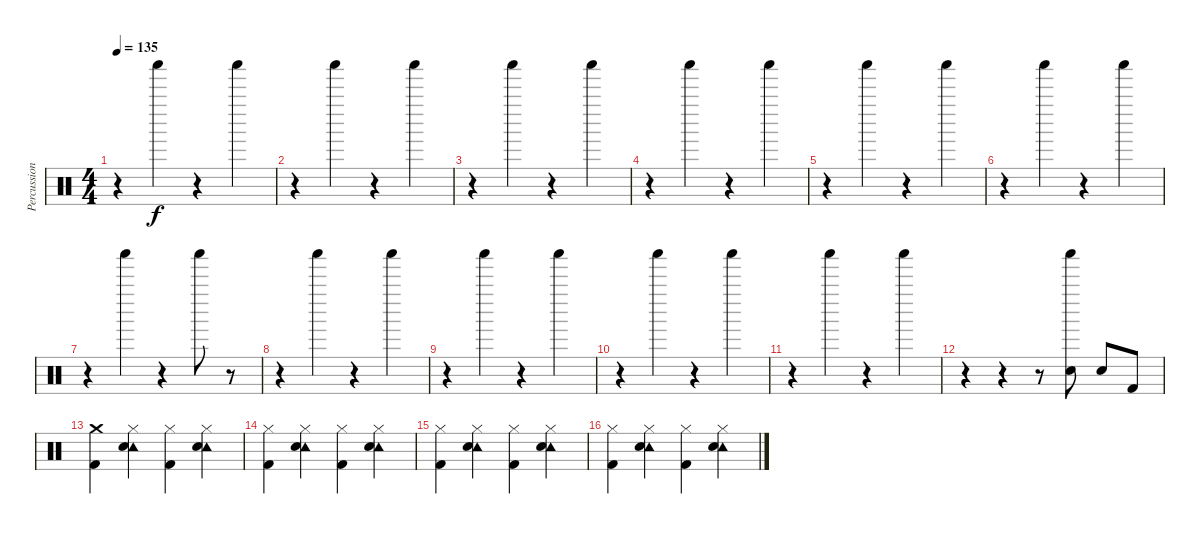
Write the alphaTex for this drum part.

\track ("Percussion" "Percussion") {instrument percussion}
\staff {score}
\articulation defaults
\ts (4 4)
\tempo 135
\clef neutral
\ks c
r.4{dy f} "Shaker (hit)".4 r.4 "Shaker (hit)".4 |
r.4 "Shaker (hit)".4 r.4 "Shaker (hit)".4 |
r.4 "Shaker (hit)".4 r.4 "Shaker (hit)".4 |
r.4 "Shaker (hit)".4 r.4 "Shaker (hit)".4 |
\section ("" "")
r.4 "Shaker (hit)".4 r.4 "Shaker (hit)".4 |
r.4 "Shaker (hit)".4 r.4 "Shaker (hit)".4 |
r.4 "Shaker (hit)".4 r.4 "Shaker (hit)".8 r.8 |
r.4 "Shaker (hit)".4 r.4 "Shaker (hit)".4 |
r.4 "Shaker (hit)".4 r.4 "Shaker (hit)".4 |
r.4 "Shaker (hit)".4 r.4 "Shaker (hit)".4 |
r.4 "Shaker (hit)".4 r.4 "Shaker (hit)".4 |
r.4 r.4 r.8 ("Shaker (hit)" "Electric Snare (hit)").8 "Electric Snare (hit)".8 "Kick (hit) 2".8 |
\section ("" "")
("Crash medium (hit)" "Kick (hit) 2").4 ("Hi-Hat (closed)" "Tambourine (hit)" "Electric Snare (hit)").4 ("Hi-Hat (closed)" "Kick (hit) 2").4 ("Hi-Hat (closed)" "Tambourine (hit)" "Electric Snare (hit)").4 |
("Hi-Hat (closed)" "Kick (hit) 2").4 ("Hi-Hat (closed)" "Tambourine (hit)" "Electric Snare (hit)").4 ("Hi-Hat (closed)" "Kick (hit) 2").4 ("Hi-Hat (closed)" "Tambourine (hit)" "Electric Snare (hit)").4 |
("Hi-Hat (closed)" "Kick (hit) 2").4 ("Hi-Hat (closed)" "Tambourine (hit)" "Electric Snare (hit)").4 ("Hi-Hat (closed)" "Kick (hit) 2").4 ("Hi-Hat (closed)" "Tambourine (hit)" "Electric Snare (hit)").4 |
("Hi-Hat (closed)" "Kick (hit) 2").4 ("Hi-Hat (closed)" "Tambourine (hit)" "Electric Snare (hit)").4 ("Hi-Hat (closed)" "Kick (hit) 2").4 ("Hi-Hat (closed)" "Tambourine (hit)" "Electric Snare (hit)").4
